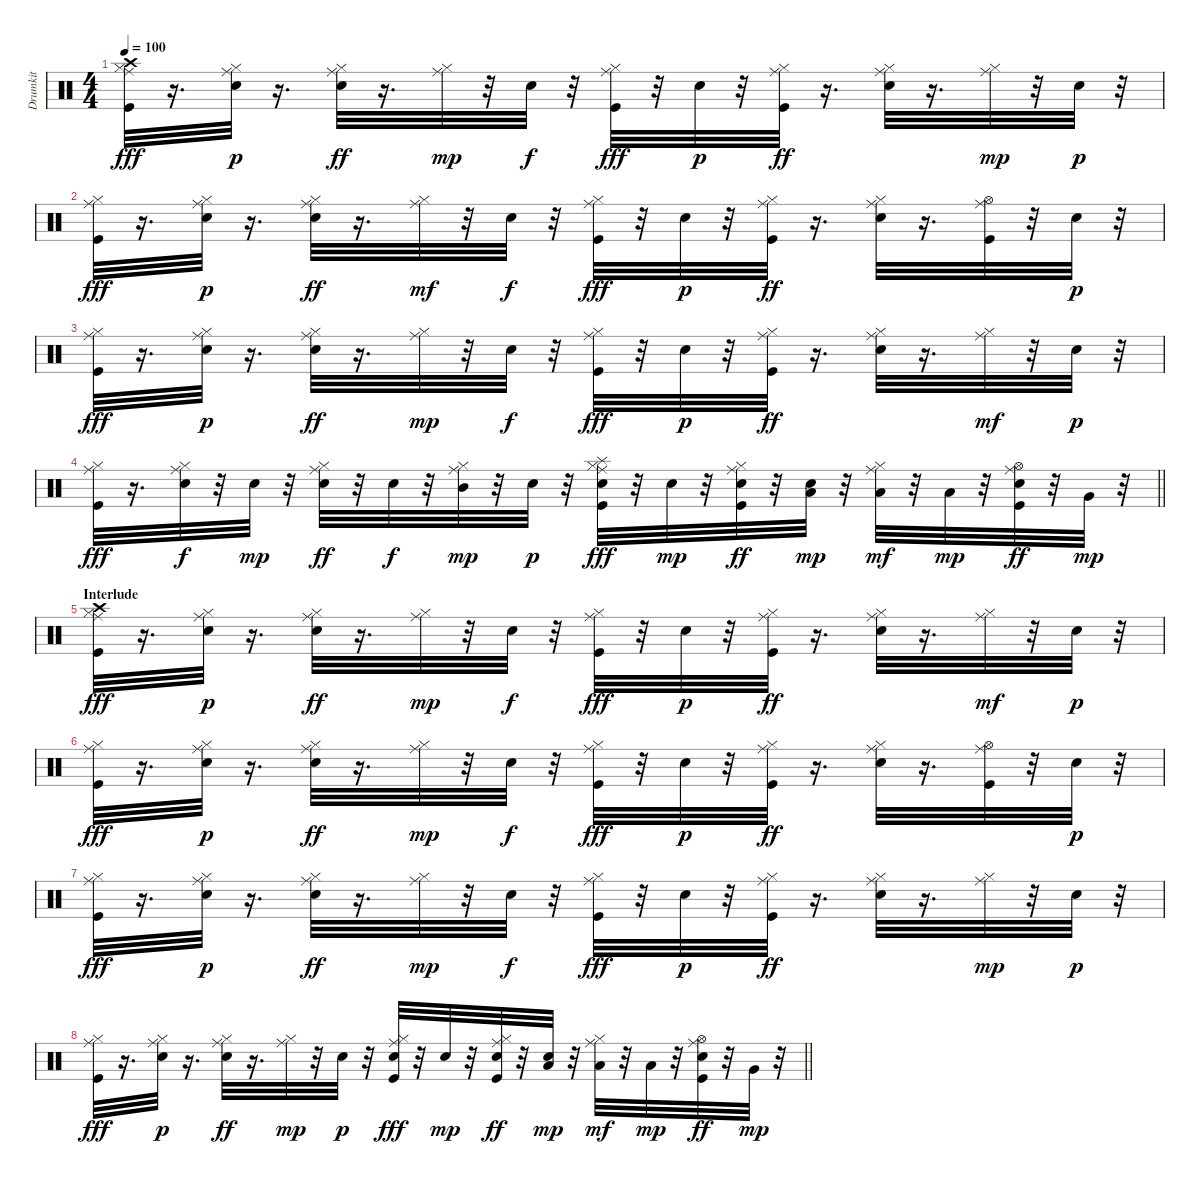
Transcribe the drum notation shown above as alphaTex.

\track ("Drumkit" "Drumkit") {instrument percussion}
\staff {score}
\articulation defaults
\ts (4 4)
\tempo 100
\clef neutral
\ks c
("Kick (hit)" "Hi-Hat (closed)" "Crash high (hit)" "Ride (middle)").32{dy fff} r.16{d} ("Snare (hit) 2" "Hi-Hat (closed)" "Ride (middle)").32{dy p} r.16{d} ("Snare (hit) 2" "Hi-Hat (closed)" "Ride (middle)").32{dy ff} r.16{d} ("Hi-Hat (closed)" "Ride (middle)").32{dy mp} r.32 "Snare (hit) 2".32{dy f} r.32 ("Kick (hit)" "Hi-Hat (closed)" "Ride (middle)").32{dy fff} r.32 "Snare (hit) 2".32{dy p} r.32 ("Kick (hit)" "Hi-Hat (closed)" "Ride (middle)").32{dy ff} r.16{d} ("Snare (hit) 2" "Hi-Hat (closed)" "Ride (middle)").32 r.16{d} ("Hi-Hat (closed)" "Ride (middle)").32{dy mp} r.32 "Snare (hit) 2".32{dy p} r.32 |
("Kick (hit)" "Hi-Hat (closed)" "Ride (middle)").32{dy fff} r.16{d} ("Snare (hit) 2" "Hi-Hat (closed)" "Ride (middle)").32{dy p} r.16{d} ("Snare (hit) 2" "Hi-Hat (closed)" "Ride (middle)").32{dy ff} r.16{d} ("Hi-Hat (closed)" "Ride (middle)").32{dy mf} r.32 "Snare (hit) 2".32{dy f} r.32 ("Kick (hit)" "Hi-Hat (closed)" "Ride (middle)").32{dy fff} r.32 "Snare (hit) 2".32{dy p} r.32 ("Kick (hit)" "Hi-Hat (closed)" "Ride (middle)").32{dy ff} r.16{d} ("Snare (hit) 2" "Hi-Hat (closed)" "Ride (middle)").32 r.16{d} ("Kick (hit)" "Hi-Hat (open)" "Ride (middle)").32 r.32 "Snare (hit) 2".32{dy p} r.32 |
("Kick (hit)" "Hi-Hat (closed)" "Ride (middle)").32{dy fff} r.16{d} ("Snare (hit) 2" "Hi-Hat (closed)" "Ride (middle)").32{dy p} r.16{d} ("Snare (hit) 2" "Hi-Hat (closed)" "Ride (middle)").32{dy ff} r.16{d} ("Hi-Hat (closed)" "Ride (middle)").32{dy mp} r.32 "Snare (hit) 2".32{dy f} r.32 ("Kick (hit)" "Hi-Hat (closed)" "Ride (middle)").32{dy fff} r.32 "Snare (hit) 2".32{dy p} r.32 ("Kick (hit)" "Hi-Hat (closed)" "Ride (middle)").32{dy ff} r.16{d} ("Snare (hit) 2" "Hi-Hat (closed)" "Ride (middle)").32 r.16{d} ("Hi-Hat (closed)" "Ride (middle)").32{dy mf} r.32 "Snare (hit) 2".32{dy p} r.32 |
\barLineRight lightlight
("Kick (hit)" "Hi-Hat (closed)" "Ride (middle)").32{dy fff} r.16{d} ("Snare (hit) 2" "Hi-Hat (closed)" "Ride (middle)").32{dy f} r.32 "Snare (hit) 2".32{dy mp} r.32 ("Snare (hit) 2" "Hi-Hat (closed)" "Ride (middle)").32{dy ff} r.32 "Snare (hit) 2".32{dy f} r.32 ("Hi-Hat (closed)" "Mid Tom (hit)" "Ride (middle)").32{dy mp} r.32 "Snare (hit) 2".32{dy p} r.32 ("Kick (hit)" "Snare (hit) 2" "Hi-Hat (closed)" "Ride (middle)" "Splash (hit)").32{dy fff} r.32 "Snare (hit) 2".32{dy mp} r.32 ("Kick (hit)" "Snare (hit) 2" "Hi-Hat (closed)" "Ride (middle)").32{dy ff} r.32 ("Snare (hit) 2" "Low Tom (hit)").32{dy mp} r.32 ("Hi-Hat (closed)" "Low Tom (hit)" "Ride (middle)").32{dy mf} r.32 "Low Tom (hit)".32{dy mp} r.32 ("Kick (hit)" "Snare (hit) 2" "Hi-Hat (open)" "Ride (middle)").32{dy ff} r.32 "Very Low Tom (hit)".32{dy mp} r.32 |
\section ("" "Interlude")
("Kick (hit)" "Hi-Hat (closed)" "Crash high (hit)" "Ride (middle)").32{dy fff} r.16{d} ("Snare (hit) 2" "Hi-Hat (closed)" "Ride (middle)").32{dy p} r.16{d} ("Snare (hit) 2" "Hi-Hat (closed)" "Ride (middle)").32{dy ff} r.16{d} ("Hi-Hat (closed)" "Ride (middle)").32{dy mp} r.32 "Snare (hit) 2".32{dy f} r.32 ("Kick (hit)" "Hi-Hat (closed)" "Ride (middle)").32{dy fff} r.32 "Snare (hit) 2".32{dy p} r.32 ("Kick (hit)" "Hi-Hat (closed)" "Ride (middle)").32{dy ff} r.16{d} ("Snare (hit) 2" "Hi-Hat (closed)" "Ride (middle)").32 r.16{d} ("Hi-Hat (closed)" "Ride (middle)").32{dy mf} r.32 "Snare (hit) 2".32{dy p} r.32 |
("Kick (hit)" "Hi-Hat (closed)" "Ride (middle)").32{dy fff} r.16{d} ("Snare (hit) 2" "Hi-Hat (closed)" "Ride (middle)").32{dy p} r.16{d} ("Snare (hit) 2" "Hi-Hat (closed)" "Ride (middle)").32{dy ff} r.16{d} ("Hi-Hat (closed)" "Ride (middle)").32{dy mp} r.32 "Snare (hit) 2".32{dy f} r.32 ("Kick (hit)" "Hi-Hat (closed)" "Ride (middle)").32{dy fff} r.32 "Snare (hit) 2".32{dy p} r.32 ("Kick (hit)" "Hi-Hat (closed)" "Ride (middle)").32{dy ff} r.16{d} ("Snare (hit) 2" "Hi-Hat (closed)" "Ride (middle)").32 r.16{d} ("Kick (hit)" "Hi-Hat (open)" "Ride (middle)").32 r.32 "Snare (hit) 2".32{dy p} r.32 |
("Kick (hit)" "Hi-Hat (closed)" "Ride (middle)").32{dy fff} r.16{d} ("Snare (hit) 2" "Hi-Hat (closed)" "Ride (middle)").32{dy p} r.16{d} ("Snare (hit) 2" "Hi-Hat (closed)" "Ride (middle)").32{dy ff} r.16{d} ("Hi-Hat (closed)" "Ride (middle)").32{dy mp} r.32 "Snare (hit) 2".32{dy f} r.32 ("Kick (hit)" "Hi-Hat (closed)" "Ride (middle)").32{dy fff} r.32 "Snare (hit) 2".32{dy p} r.32 ("Kick (hit)" "Hi-Hat (closed)" "Ride (middle)").32{dy ff} r.16{d} ("Snare (hit) 2" "Hi-Hat (closed)" "Ride (middle)").32 r.16{d} ("Hi-Hat (closed)" "Ride (middle)").32{dy mp} r.32 "Snare (hit) 2".32{dy p} r.32 |
\barLineRight lightlight
("Kick (hit)" "Hi-Hat (closed)" "Ride (middle)").32{dy fff} r.16{d} ("Snare (hit) 2" "Hi-Hat (closed)" "Ride (middle)").32{dy p} r.16{d} ("Snare (hit) 2" "Hi-Hat (closed)" "Ride (middle)").32{dy ff} r.16{d} ("Hi-Hat (closed)" "Ride (middle)").32{dy mp} r.32 "Snare (hit) 2".32{dy p} r.32 ("Kick (hit)" "Snare (hit) 2" "Hi-Hat (closed)" "Ride (middle)").32{dy fff} r.32 "Snare (hit) 2".32{dy mp} r.32 ("Kick (hit)" "Snare (hit) 2" "Hi-Hat (closed)" "Ride (middle)").32{dy ff} r.32 ("Snare (hit) 2" "Low Tom (hit)").32{dy mp} r.32 ("Hi-Hat (closed)" "Low Tom (hit)" "Ride (middle)").32{dy mf} r.32 "Low Tom (hit)".32{dy mp} r.32 ("Kick (hit)" "Snare (hit) 2" "Hi-Hat (open)" "Ride (middle)").32{dy ff} r.32 "Very Low Tom (hit)".32{dy mp} r.32
